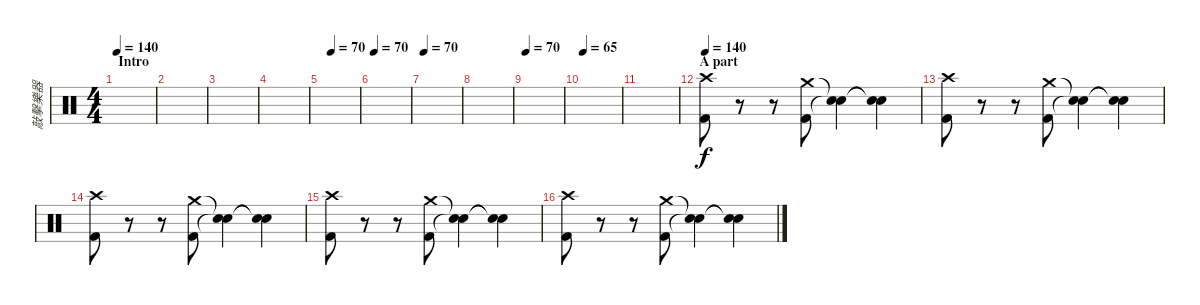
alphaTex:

\track ("敲擊樂器" "敲擊樂器") {instrument percussion}
\staff {score}
\articulation defaults
\ts (4 4)
\section ("" "Intro")
\tempo 140
\tempo 70
\tempo 140
\clef neutral
\ks c
|
|
|
|
\tempo (70 0.25)
|
\tempo (70 0.03125)
|
\tempo 70
|
|
\tempo 70
|
\tempo 65
|
|
\section ("" "A part")
\tempo 140
("Crash high (hit)" "Kick (hit) 2").8 r.8 r.8 ("Crash medium (hit)" "Kick (hit) 2").8 ("Snare (hit)"{t} "Snare (hit)"{t}).4 ("Snare (hit)"{t} "Snare (hit)"{t}).4 |
("Crash high (hit)" "Kick (hit) 2").8 r.8 r.8 ("Crash medium (hit)" "Kick (hit) 2").8 ("Snare (hit)"{t} "Snare (hit)"{t}).4 ("Snare (hit)"{t} "Snare (hit)"{t}).4 |
("Crash high (hit)" "Kick (hit) 2").8 r.8 r.8 ("Crash medium (hit)" "Kick (hit) 2").8 ("Snare (hit)"{t} "Snare (hit)"{t}).4 ("Snare (hit)"{t} "Snare (hit)"{t}).4 |
("Crash high (hit)" "Kick (hit) 2").8 r.8 r.8 ("Crash medium (hit)" "Kick (hit) 2").8 ("Snare (hit)"{t} "Snare (hit)"{t}).4 ("Snare (hit)"{t} "Snare (hit)"{t}).4 |
("Crash high (hit)" "Kick (hit) 2").8 r.8 r.8 ("Crash medium (hit)" "Kick (hit) 2").8 ("Snare (hit)"{t} "Snare (hit)"{t}).4 ("Snare (hit)"{t} "Snare (hit)"{t}).4
